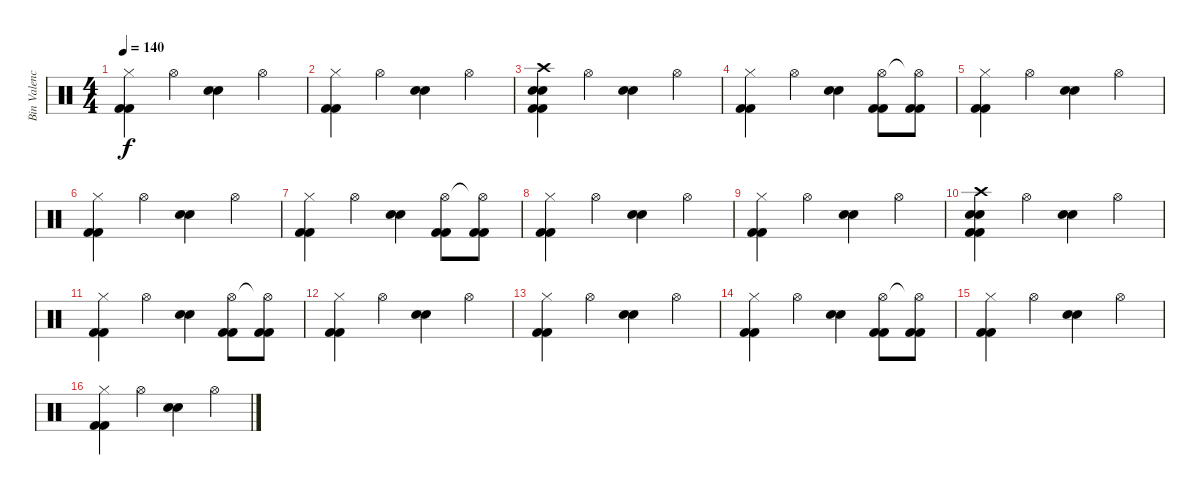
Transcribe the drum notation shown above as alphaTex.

\track ("Bin Valencia (Bateria)" "Bin Valenc") {instrument percussion}
\staff {score}
\articulation defaults
\ts (4 4)
\tempo 140
\clef neutral
\ks c
("Hi-Hat (closed)" "Kick (hit) 2" "Kick (hit) 2").4{dy f} "Hi-Hat (open)".4 ("Snare (hit) 2" "Snare (hit) 2").4 "Hi-Hat (open)".4 |
("Hi-Hat (closed)" "Kick (hit) 2" "Kick (hit) 2").4 "Hi-Hat (open)".4 ("Snare (hit) 2" "Snare (hit) 2").4 "Hi-Hat (open)".4 |
("Crash high (hit)" "Snare (hit) 2" "Snare (hit) 2" "Kick (hit) 2" "Kick (hit) 2").4 "Hi-Hat (open)".4 ("Snare (hit) 2" "Snare (hit) 2").4 "Hi-Hat (open)".4 |
("Hi-Hat (closed)" "Kick (hit) 2" "Kick (hit) 2").4 "Hi-Hat (open)".4 ("Snare (hit) 2" "Snare (hit) 2").4 ("Hi-Hat (open)" "Kick (hit) 2" "Kick (hit) 2").8 ("Hi-Hat (open)"{t} "Kick (hit) 2" "Kick (hit) 2").8 |
("Hi-Hat (closed)" "Kick (hit) 2" "Kick (hit) 2").4 "Hi-Hat (open)".4 ("Snare (hit) 2" "Snare (hit) 2").4 "Hi-Hat (open)".4 |
("Hi-Hat (closed)" "Kick (hit) 2" "Kick (hit) 2").4 "Hi-Hat (open)".4 ("Snare (hit) 2" "Snare (hit) 2").4 "Hi-Hat (open)".4 |
("Hi-Hat (closed)" "Kick (hit) 2" "Kick (hit) 2").4 "Hi-Hat (open)".4 ("Snare (hit) 2" "Snare (hit) 2").4 ("Hi-Hat (open)" "Kick (hit) 2" "Kick (hit) 2").8 ("Hi-Hat (open)"{t} "Kick (hit) 2" "Kick (hit) 2").8 |
("Hi-Hat (closed)" "Kick (hit) 2" "Kick (hit) 2").4 "Hi-Hat (open)".4 ("Snare (hit) 2" "Snare (hit) 2").4 "Hi-Hat (open)".4 |
("Hi-Hat (closed)" "Kick (hit) 2" "Kick (hit) 2").4 "Hi-Hat (open)".4 ("Snare (hit) 2" "Snare (hit) 2").4 "Hi-Hat (open)".4 |
("Crash high (hit)" "Snare (hit) 2" "Snare (hit) 2" "Kick (hit) 2" "Kick (hit) 2").4 "Hi-Hat (open)".4 ("Snare (hit) 2" "Snare (hit) 2").4 "Hi-Hat (open)".4 |
("Hi-Hat (closed)" "Kick (hit) 2" "Kick (hit) 2").4 "Hi-Hat (open)".4 ("Snare (hit) 2" "Snare (hit) 2").4 ("Hi-Hat (open)" "Kick (hit) 2" "Kick (hit) 2").8 ("Hi-Hat (open)"{t} "Kick (hit) 2" "Kick (hit) 2").8 |
("Hi-Hat (closed)" "Kick (hit) 2" "Kick (hit) 2").4 "Hi-Hat (open)".4 ("Snare (hit) 2" "Snare (hit) 2").4 "Hi-Hat (open)".4 |
("Hi-Hat (closed)" "Kick (hit) 2" "Kick (hit) 2").4 "Hi-Hat (open)".4 ("Snare (hit) 2" "Snare (hit) 2").4 "Hi-Hat (open)".4 |
("Hi-Hat (closed)" "Kick (hit) 2" "Kick (hit) 2").4 "Hi-Hat (open)".4 ("Snare (hit) 2" "Snare (hit) 2").4 ("Hi-Hat (open)" "Kick (hit) 2" "Kick (hit) 2").8 ("Hi-Hat (open)"{t} "Kick (hit) 2" "Kick (hit) 2").8 |
("Hi-Hat (closed)" "Kick (hit) 2" "Kick (hit) 2").4 "Hi-Hat (open)".4 ("Snare (hit) 2" "Snare (hit) 2").4 "Hi-Hat (open)".4 |
("Hi-Hat (closed)" "Kick (hit) 2" "Kick (hit) 2").4 "Hi-Hat (open)".4 ("Snare (hit) 2" "Snare (hit) 2").4 "Hi-Hat (open)".4
